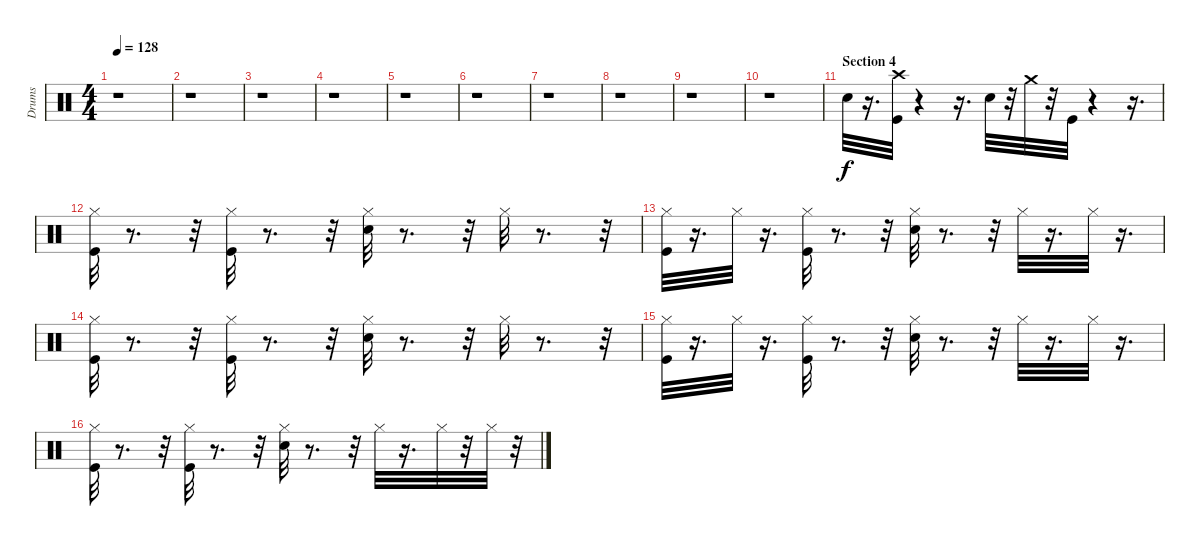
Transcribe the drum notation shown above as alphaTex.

\track ("Drums" "Drums") {instrument percussion}
\staff {score}
\articulation defaults
\ts (4 4)
\tempo 128
\clef neutral
\ks c
r.1{dy f} |
r.1 |
r.1 |
r.1 |
r.1 |
r.1 |
r.1 |
r.1 |
r.1 |
r.1 |
\section ("" "Section 4")
"Snare (hit) 2".32 r.16{d} ("Crash high (hit)" "Kick (hit)").32 r.4 r.16{d} "Snare (hit) 2".32 r.32 "Crash medium (hit)".32 r.32 "Kick (hit)".32 r.4 r.16{d} |
("Hi-Hat (closed)" "Kick (hit)").32 r.8{d} r.32 ("Hi-Hat (closed)" "Kick (hit)").32 r.8{d} r.32 ("Hi-Hat (closed)" "Snare (hit) 2").32 r.8{d} r.32 "Hi-Hat (closed)".32 r.8{d} r.32 |
("Kick (hit)" "Hi-Hat (closed)").32 r.16{d} "Hi-Hat (closed)".32 r.16{d} ("Kick (hit)" "Hi-Hat (closed)").32 r.8{d} r.32 ("Snare (hit) 2" "Hi-Hat (closed)").32 r.8{d} r.32 "Hi-Hat (closed)".32 r.16{d} "Hi-Hat (closed)".32 r.16{d} |
("Hi-Hat (closed)" "Kick (hit)").32 r.8{d} r.32 ("Hi-Hat (closed)" "Kick (hit)").32 r.8{d} r.32 ("Hi-Hat (closed)" "Snare (hit) 2").32 r.8{d} r.32 "Hi-Hat (closed)".32 r.8{d} r.32 |
("Kick (hit)" "Hi-Hat (closed)").32 r.16{d} "Hi-Hat (closed)".32 r.16{d} ("Kick (hit)" "Hi-Hat (closed)").32 r.8{d} r.32 ("Snare (hit) 2" "Hi-Hat (closed)").32 r.8{d} r.32 "Hi-Hat (closed)".32 r.16{d} "Hi-Hat (closed)".32 r.16{d} |
("Hi-Hat (closed)" "Kick (hit)").32 r.8{d} r.32 ("Hi-Hat (closed)" "Kick (hit)").32 r.8{d} r.32 ("Hi-Hat (closed)" "Snare (hit) 2").32 r.8{d} r.32 "Hi-Hat (closed)".32 r.16{d} "Hi-Hat (closed)".32 r.32 "Hi-Hat (closed)".32 r.32
